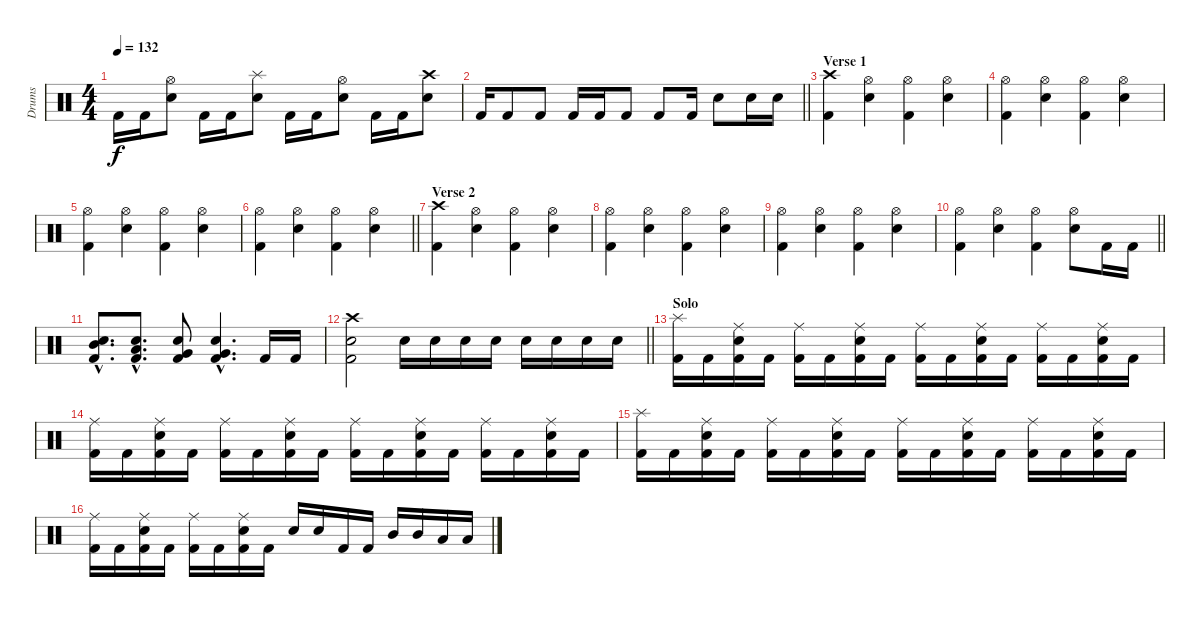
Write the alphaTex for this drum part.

\track ("Drums" "Drums") {instrument percussion}
\staff {score}
\articulation defaults
\ts (4 4)
\tempo 132
\clef neutral
\ks c "Kick (hit) 2".16{dy f} "Kick (hit) 2".16
("Hi-Hat (open)" "Electric Snare (hit)").8 "Kick (hit) 2".16 "Kick (hit) 2".16 ("Splash (hit)" "Electric Snare (hit)").8 "Kick (hit) 2".16 "Kick (hit) 2".16 ("Hi-Hat (open)" "Electric Snare (hit)").8 "Kick (hit) 2".16 "Kick (hit) 2".16 ("Crash high (hit)" "Electric Snare (hit)").8 |
\barLineRight lightlight "Kick (hit) 2".16 "Kick (hit) 2".8 "Kick (hit) 2".8 "Kick (hit) 2".16 "Kick (hit) 2".16 "Kick (hit) 2".8 "Kick (hit) 2".8 "Kick (hit) 2".16 "Electric Snare (hit)".8 "Electric Snare (hit)".16 "Electric Snare (hit)".16
|
\section ("" "Verse 1")
("Crash high (hit)" "Kick (hit) 2").4 ("Hi-Hat (open)" "Electric Snare (hit)").4 ("Hi-Hat (open)" "Kick (hit) 2").4 ("Hi-Hat (open)" "Electric Snare (hit)").4 |
("Hi-Hat (open)" "Kick (hit) 2").4 ("Hi-Hat (open)" "Electric Snare (hit)").4 ("Hi-Hat (open)" "Kick (hit) 2").4 ("Hi-Hat (open)" "Electric Snare (hit)").4 |
("Hi-Hat (open)" "Kick (hit) 2").4 ("Hi-Hat (open)" "Electric Snare (hit)").4 ("Hi-Hat (open)" "Kick (hit) 2").4 ("Hi-Hat (open)" "Electric Snare (hit)").4 |
\barLineRight lightlight
("Hi-Hat (open)" "Kick (hit) 2").4 ("Hi-Hat (open)" "Electric Snare (hit)").4 ("Hi-Hat (open)" "Kick (hit) 2").4 ("Hi-Hat (open)" "Electric Snare (hit)").4 |
\section ("" "Verse 2")
("Crash high (hit)" "Kick (hit) 2").4 ("Hi-Hat (open)" "Electric Snare (hit)").4 ("Hi-Hat (open)" "Kick (hit) 2").4 ("Hi-Hat (open)" "Electric Snare (hit)").4 |
("Hi-Hat (open)" "Kick (hit) 2").4 ("Hi-Hat (open)" "Electric Snare (hit)").4 ("Hi-Hat (open)" "Kick (hit) 2").4 ("Hi-Hat (open)" "Electric Snare (hit)").4 |
("Hi-Hat (open)" "Kick (hit) 2").4 ("Hi-Hat (open)" "Electric Snare (hit)").4 ("Hi-Hat (open)" "Kick (hit) 2").4 ("Hi-Hat (open)" "Electric Snare (hit)").4 |
\barLineRight lightlight
("Hi-Hat (open)" "Kick (hit) 2").4 ("Hi-Hat (open)" "Electric Snare (hit)").4 ("Hi-Hat (open)" "Kick (hit) 2").4 ("Hi-Hat (open)" "Electric Snare (hit)").8 "Kick (hit) 2".16 "Kick (hit) 2".16 |
("Mid Tom (hit)"{hac} "Electric Snare (hit)"{hac} "Kick (hit) 2"{hac}).8{d} ("Low Tom (hit)"{hac} "Electric Snare (hit)"{hac} "Kick (hit) 2"{hac}).8{d} ("Very Low Tom (hit)" "Electric Snare (hit)" "Kick (hit) 2").8 ("Very Low Tom (hit)"{hac} "Electric Snare (hit)"{hac} "Kick (hit) 2"{hac}).4{d} "Kick (hit) 2".16 "Kick (hit) 2".16 |
\barLineRight lightlight
("Crash high (hit)" "Electric Snare (hit)" "Kick (hit) 2").2 "Electric Snare (hit)".16 "Electric Snare (hit)".16 "Electric Snare (hit)".16 "Electric Snare (hit)".16 "Electric Snare (hit)".16 "Electric Snare (hit)".16 "Electric Snare (hit)".16 "Electric Snare (hit)".16 |
\section ("" "Solo")
("Splash (hit)" "Kick (hit) 2").16 "Kick (hit) 2".16 ("Ride (middle)" "Electric Snare (hit)" "Kick (hit) 2").16 "Kick (hit) 2".16 ("Ride (middle)" "Kick (hit) 2").16 "Kick (hit) 2".16 ("Ride (middle)" "Electric Snare (hit)" "Kick (hit) 2").16 "Kick (hit) 2".16 ("Ride (middle)" "Kick (hit) 2").16 "Kick (hit) 2".16 ("Ride (middle)" "Electric Snare (hit)" "Kick (hit) 2").16 "Kick (hit) 2".16 ("Ride (middle)" "Kick (hit) 2").16 "Kick (hit) 2".16 ("Ride (middle)" "Electric Snare (hit)" "Kick (hit) 2").16 "Kick (hit) 2".16 |
("Ride (middle)" "Kick (hit) 2").16 "Kick (hit) 2".16 ("Ride (middle)" "Electric Snare (hit)" "Kick (hit) 2").16 "Kick (hit) 2".16 ("Ride (middle)" "Kick (hit) 2").16 "Kick (hit) 2".16 ("Ride (middle)" "Electric Snare (hit)" "Kick (hit) 2").16 "Kick (hit) 2".16 ("Ride (middle)" "Kick (hit) 2").16 "Kick (hit) 2".16 ("Ride (middle)" "Electric Snare (hit)" "Kick (hit) 2").16 "Kick (hit) 2".16 ("Ride (middle)" "Kick (hit) 2").16 "Kick (hit) 2".16 ("Ride (middle)" "Electric Snare (hit)" "Kick (hit) 2").16 "Kick (hit) 2".16 |
("Splash (hit)" "Kick (hit) 2").16 "Kick (hit) 2".16 ("Ride (middle)" "Electric Snare (hit)" "Kick (hit) 2").16 "Kick (hit) 2".16 ("Ride (middle)" "Kick (hit) 2").16 "Kick (hit) 2".16 ("Ride (middle)" "Electric Snare (hit)" "Kick (hit) 2").16 "Kick (hit) 2".16 ("Ride (middle)" "Kick (hit) 2").16 "Kick (hit) 2".16 ("Ride (middle)" "Electric Snare (hit)" "Kick (hit) 2").16 "Kick (hit) 2".16 ("Ride (middle)" "Kick (hit) 2").16 "Kick (hit) 2".16 ("Ride (middle)" "Electric Snare (hit)" "Kick (hit) 2").16 "Kick (hit) 2".16 |
("Ride (middle)" "Kick (hit) 2").16 "Kick (hit) 2".16 ("Ride (middle)" "Electric Snare (hit)" "Kick (hit) 2").16 "Kick (hit) 2".16 ("Ride (middle)" "Kick (hit) 2").16 "Kick (hit) 2".16 ("Ride (middle)" "Electric Snare (hit)" "Kick (hit) 2").16 "Kick (hit) 2".16 "Electric Snare (hit)".16 "Electric Snare (hit)".16 "Kick (hit) 2".16 "Kick (hit) 2".16 "Mid Tom (hit)".16 "Mid Tom (hit)".16 "Low Tom (hit)".16 "Low Tom (hit)".16
